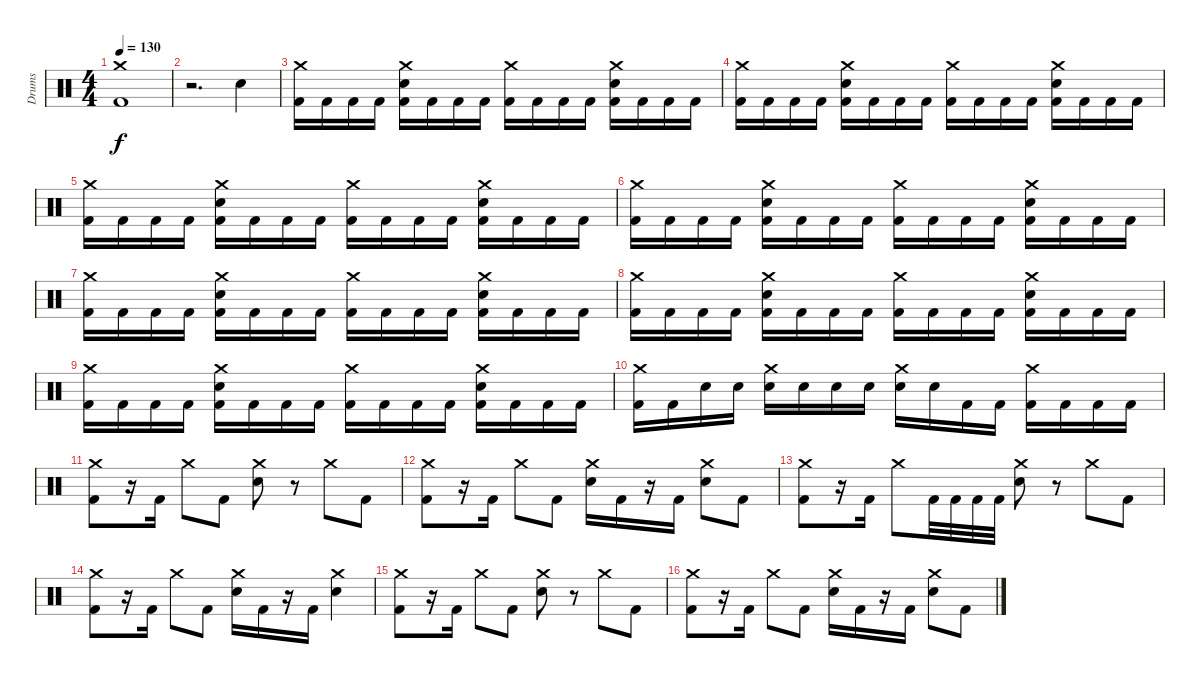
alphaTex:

\track ("Drums" "Drums") {instrument percussion}
\staff {score}
\articulation defaults
\ts (4 4)
\tempo 130
\clef neutral
\ks c
("Crash medium (hit)" "Kick (hit) 2").1{dy f} |
r.2{d} "Snare (hit) 2".4 |
("Crash medium (hit)" "Kick (hit) 2").16 "Kick (hit) 2".16 "Kick (hit) 2".16 "Kick (hit) 2".16 ("Crash medium (hit)" "Snare (hit) 2" "Kick (hit) 2").16 "Kick (hit) 2".16 "Kick (hit) 2".16 "Kick (hit) 2".16 ("Crash medium (hit)" "Kick (hit) 2").16 "Kick (hit) 2".16 "Kick (hit) 2".16 "Kick (hit) 2".16 ("Crash medium (hit)" "Snare (hit) 2" "Kick (hit) 2").16 "Kick (hit) 2".16 "Kick (hit) 2".16 "Kick (hit) 2".16 |
("Crash medium (hit)" "Kick (hit) 2").16 "Kick (hit) 2".16 "Kick (hit) 2".16 "Kick (hit) 2".16 ("Crash medium (hit)" "Snare (hit) 2" "Kick (hit) 2").16 "Kick (hit) 2".16 "Kick (hit) 2".16 "Kick (hit) 2".16 ("Crash medium (hit)" "Kick (hit) 2").16 "Kick (hit) 2".16 "Kick (hit) 2".16 "Kick (hit) 2".16 ("Crash medium (hit)" "Snare (hit) 2" "Kick (hit) 2").16 "Kick (hit) 2".16 "Kick (hit) 2".16 "Kick (hit) 2".16 |
("Crash medium (hit)" "Kick (hit) 2").16 "Kick (hit) 2".16 "Kick (hit) 2".16 "Kick (hit) 2".16 ("Crash medium (hit)" "Snare (hit) 2" "Kick (hit) 2").16 "Kick (hit) 2".16 "Kick (hit) 2".16 "Kick (hit) 2".16 ("Crash medium (hit)" "Kick (hit) 2").16 "Kick (hit) 2".16 "Kick (hit) 2".16 "Kick (hit) 2".16 ("Crash medium (hit)" "Snare (hit) 2" "Kick (hit) 2").16 "Kick (hit) 2".16 "Kick (hit) 2".16 "Kick (hit) 2".16 |
("Crash medium (hit)" "Kick (hit) 2").16 "Kick (hit) 2".16 "Kick (hit) 2".16 "Kick (hit) 2".16 ("Crash medium (hit)" "Snare (hit) 2" "Kick (hit) 2").16 "Kick (hit) 2".16 "Kick (hit) 2".16 "Kick (hit) 2".16 ("Crash medium (hit)" "Kick (hit) 2").16 "Kick (hit) 2".16 "Kick (hit) 2".16 "Kick (hit) 2".16 ("Crash medium (hit)" "Snare (hit) 2" "Kick (hit) 2").16 "Kick (hit) 2".16 "Kick (hit) 2".16 "Kick (hit) 2".16 |
("Crash medium (hit)" "Kick (hit) 2").16 "Kick (hit) 2".16 "Kick (hit) 2".16 "Kick (hit) 2".16 ("Crash medium (hit)" "Snare (hit) 2" "Kick (hit) 2").16 "Kick (hit) 2".16 "Kick (hit) 2".16 "Kick (hit) 2".16 ("Crash medium (hit)" "Kick (hit) 2").16 "Kick (hit) 2".16 "Kick (hit) 2".16 "Kick (hit) 2".16 ("Crash medium (hit)" "Snare (hit) 2" "Kick (hit) 2").16 "Kick (hit) 2".16 "Kick (hit) 2".16 "Kick (hit) 2".16 |
("Crash medium (hit)" "Kick (hit) 2").16 "Kick (hit) 2".16 "Kick (hit) 2".16 "Kick (hit) 2".16 ("Crash medium (hit)" "Snare (hit) 2" "Kick (hit) 2").16 "Kick (hit) 2".16 "Kick (hit) 2".16 "Kick (hit) 2".16 ("Crash medium (hit)" "Kick (hit) 2").16 "Kick (hit) 2".16 "Kick (hit) 2".16 "Kick (hit) 2".16 ("Crash medium (hit)" "Snare (hit) 2" "Kick (hit) 2").16 "Kick (hit) 2".16 "Kick (hit) 2".16 "Kick (hit) 2".16 |
("Crash medium (hit)" "Kick (hit) 2").16 "Kick (hit) 2".16 "Kick (hit) 2".16 "Kick (hit) 2".16 ("Crash medium (hit)" "Snare (hit) 2" "Kick (hit) 2").16 "Kick (hit) 2".16 "Kick (hit) 2".16 "Kick (hit) 2".16 ("Crash medium (hit)" "Kick (hit) 2").16 "Kick (hit) 2".16 "Kick (hit) 2".16 "Kick (hit) 2".16 ("Crash medium (hit)" "Snare (hit) 2" "Kick (hit) 2").16 "Kick (hit) 2".16 "Kick (hit) 2".16 "Kick (hit) 2".16 |
("Crash medium (hit)" "Kick (hit) 2").16 "Kick (hit) 2".16 "Snare (hit) 2".16 "Snare (hit) 2".16 ("Crash medium (hit)" "Snare (hit) 2").16 "Snare (hit) 2".16 "Snare (hit) 2".16 "Snare (hit) 2".16 ("Crash medium (hit)" "Snare (hit) 2").16 "Snare (hit) 2".16 "Kick (hit) 2".16 "Kick (hit) 2".16 ("Crash medium (hit)" "Kick (hit) 2").16 "Kick (hit) 2".16 "Kick (hit) 2".16 "Kick (hit) 2".16 |
("Crash medium (hit)" "Kick (hit) 2").8 r.16 "Kick (hit) 2".16 "Crash medium (hit)".8 "Kick (hit) 2".8 ("Crash medium (hit)" "Snare (hit) 2").8 r.8 "Crash medium (hit)".8 "Kick (hit) 2".8 |
("Crash medium (hit)" "Kick (hit) 2").8 r.16 "Kick (hit) 2".16 "Crash medium (hit)".8 "Kick (hit) 2".8 ("Crash medium (hit)" "Snare (hit) 2").16 "Kick (hit) 2".16 r.16 "Kick (hit) 2".16 ("Crash medium (hit)" "Snare (hit) 2").8 "Kick (hit) 2".8 |
("Crash medium (hit)" "Kick (hit) 2").8 r.16 "Kick (hit) 2".16 "Crash medium (hit)".8 "Kick (hit) 2".32 "Kick (hit) 2".32 "Kick (hit) 2".32 "Kick (hit) 2".32 ("Crash medium (hit)" "Snare (hit) 2").8 r.8 "Crash medium (hit)".8 "Kick (hit) 2".8 |
("Crash medium (hit)" "Kick (hit) 2").8 r.16 "Kick (hit) 2".16 "Crash medium (hit)".8 "Kick (hit) 2".8 ("Crash medium (hit)" "Snare (hit) 2").16 "Kick (hit) 2".16 r.16 "Kick (hit) 2".16 ("Crash medium (hit)" "Snare (hit) 2").4 |
("Crash medium (hit)" "Kick (hit) 2").8 r.16 "Kick (hit) 2".16 "Crash medium (hit)".8 "Kick (hit) 2".8 ("Crash medium (hit)" "Snare (hit) 2").8 r.8 "Crash medium (hit)".8 "Kick (hit) 2".8 |
("Crash medium (hit)" "Kick (hit) 2").8 r.16 "Kick (hit) 2".16 "Crash medium (hit)".8 "Kick (hit) 2".8 ("Crash medium (hit)" "Snare (hit) 2").16 "Kick (hit) 2".16 r.16 "Kick (hit) 2".16 ("Crash medium (hit)" "Snare (hit) 2").8 "Kick (hit) 2".8
